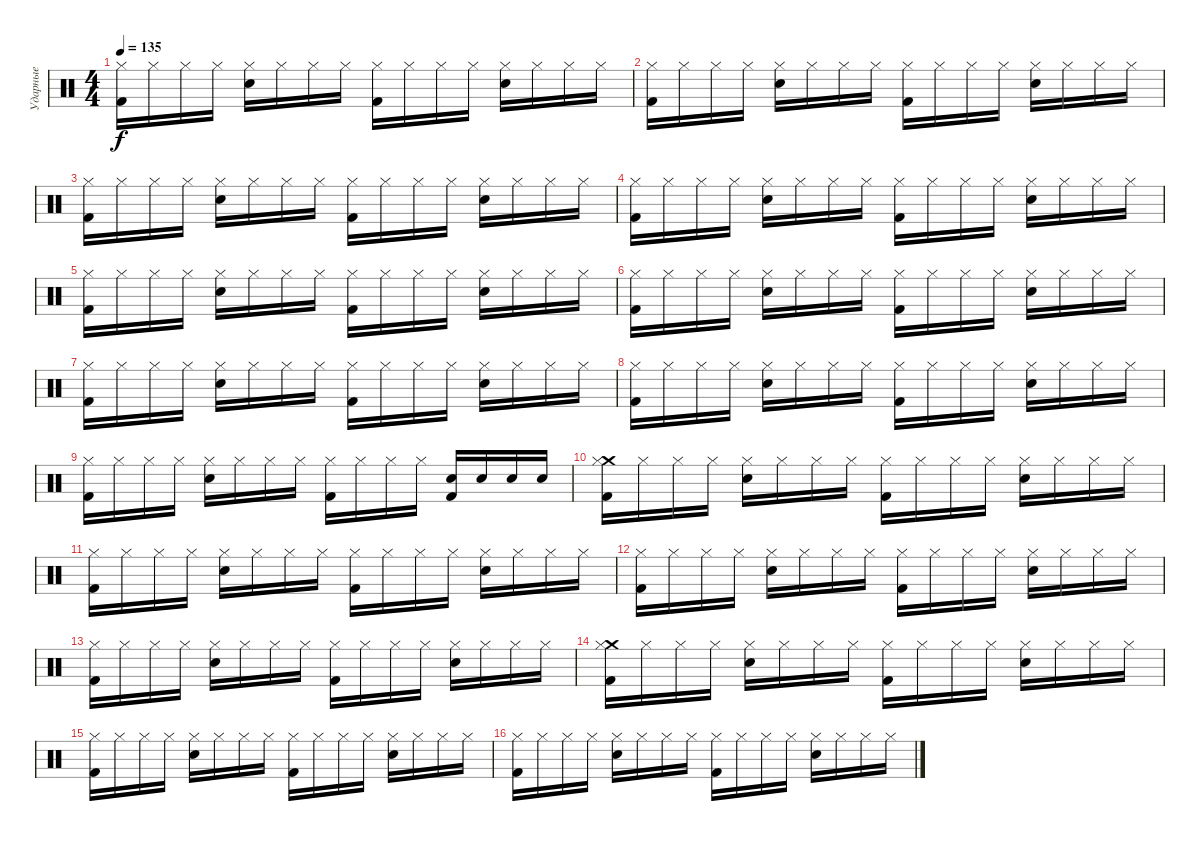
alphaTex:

\track ("Ударные" "Ударные") {instrument percussion}
\staff {score}
\articulation defaults
\ts (4 4)
\tempo 135
\clef neutral
\ks c
("Hi-Hat (closed)" "Kick (hit) 2").16{dy f} "Hi-Hat (closed)".16 "Hi-Hat (closed)".16 "Hi-Hat (closed)".16 ("Hi-Hat (closed)" "Snare (hit) 2").16 "Hi-Hat (closed)".16 "Hi-Hat (closed)".16 "Hi-Hat (closed)".16 ("Hi-Hat (closed)" "Kick (hit) 2").16 "Hi-Hat (closed)".16 "Hi-Hat (closed)".16 "Hi-Hat (closed)".16 ("Hi-Hat (closed)" "Snare (hit) 2").16 "Hi-Hat (closed)".16 "Hi-Hat (closed)".16 "Hi-Hat (closed)".16 |
("Hi-Hat (closed)" "Kick (hit) 2").16 "Hi-Hat (closed)".16 "Hi-Hat (closed)".16 "Hi-Hat (closed)".16 ("Hi-Hat (closed)" "Snare (hit) 2").16 "Hi-Hat (closed)".16 "Hi-Hat (closed)".16 "Hi-Hat (closed)".16 ("Hi-Hat (closed)" "Kick (hit) 2").16 "Hi-Hat (closed)".16 "Hi-Hat (closed)".16 "Hi-Hat (closed)".16 ("Hi-Hat (closed)" "Snare (hit) 2").16 "Hi-Hat (closed)".16 "Hi-Hat (closed)".16 "Hi-Hat (closed)".16 |
("Hi-Hat (closed)" "Kick (hit) 2").16 "Hi-Hat (closed)".16 "Hi-Hat (closed)".16 "Hi-Hat (closed)".16 ("Hi-Hat (closed)" "Snare (hit) 2").16 "Hi-Hat (closed)".16 "Hi-Hat (closed)".16 "Hi-Hat (closed)".16 ("Hi-Hat (closed)" "Kick (hit) 2").16 "Hi-Hat (closed)".16 "Hi-Hat (closed)".16 "Hi-Hat (closed)".16 ("Hi-Hat (closed)" "Snare (hit) 2").16 "Hi-Hat (closed)".16 "Hi-Hat (closed)".16 "Hi-Hat (closed)".16 |
("Hi-Hat (closed)" "Kick (hit) 2").16 "Hi-Hat (closed)".16 "Hi-Hat (closed)".16 "Hi-Hat (closed)".16 ("Hi-Hat (closed)" "Snare (hit) 2").16 "Hi-Hat (closed)".16 "Hi-Hat (closed)".16 "Hi-Hat (closed)".16 ("Hi-Hat (closed)" "Kick (hit) 2").16 "Hi-Hat (closed)".16 "Hi-Hat (closed)".16 "Hi-Hat (closed)".16 ("Hi-Hat (closed)" "Snare (hit) 2").16 "Hi-Hat (closed)".16 "Hi-Hat (closed)".16 "Hi-Hat (closed)".16 |
("Hi-Hat (closed)" "Kick (hit) 2").16 "Hi-Hat (closed)".16 "Hi-Hat (closed)".16 "Hi-Hat (closed)".16 ("Hi-Hat (closed)" "Snare (hit) 2").16 "Hi-Hat (closed)".16 "Hi-Hat (closed)".16 "Hi-Hat (closed)".16 ("Hi-Hat (closed)" "Kick (hit) 2").16 "Hi-Hat (closed)".16 "Hi-Hat (closed)".16 "Hi-Hat (closed)".16 ("Hi-Hat (closed)" "Snare (hit) 2").16 "Hi-Hat (closed)".16 "Hi-Hat (closed)".16 "Hi-Hat (closed)".16 |
("Hi-Hat (closed)" "Kick (hit) 2").16 "Hi-Hat (closed)".16 "Hi-Hat (closed)".16 "Hi-Hat (closed)".16 ("Hi-Hat (closed)" "Snare (hit) 2").16 "Hi-Hat (closed)".16 "Hi-Hat (closed)".16 "Hi-Hat (closed)".16 ("Hi-Hat (closed)" "Kick (hit) 2").16 "Hi-Hat (closed)".16 "Hi-Hat (closed)".16 "Hi-Hat (closed)".16 ("Hi-Hat (closed)" "Snare (hit) 2").16 "Hi-Hat (closed)".16 "Hi-Hat (closed)".16 "Hi-Hat (closed)".16 |
("Hi-Hat (closed)" "Kick (hit) 2").16 "Hi-Hat (closed)".16 "Hi-Hat (closed)".16 "Hi-Hat (closed)".16 ("Hi-Hat (closed)" "Snare (hit) 2").16 "Hi-Hat (closed)".16 "Hi-Hat (closed)".16 "Hi-Hat (closed)".16 ("Hi-Hat (closed)" "Kick (hit) 2").16 "Hi-Hat (closed)".16 "Hi-Hat (closed)".16 "Hi-Hat (closed)".16 ("Hi-Hat (closed)" "Snare (hit) 2").16 "Hi-Hat (closed)".16 "Hi-Hat (closed)".16 "Hi-Hat (closed)".16 |
("Hi-Hat (closed)" "Kick (hit) 2").16 "Hi-Hat (closed)".16 "Hi-Hat (closed)".16 "Hi-Hat (closed)".16 ("Hi-Hat (closed)" "Snare (hit) 2").16 "Hi-Hat (closed)".16 "Hi-Hat (closed)".16 "Hi-Hat (closed)".16 ("Hi-Hat (closed)" "Kick (hit) 2").16 "Hi-Hat (closed)".16 "Hi-Hat (closed)".16 "Hi-Hat (closed)".16 ("Hi-Hat (closed)" "Snare (hit) 2").16 "Hi-Hat (closed)".16 "Hi-Hat (closed)".16 "Hi-Hat (closed)".16 |
("Hi-Hat (closed)" "Kick (hit) 2").16 "Hi-Hat (closed)".16 "Hi-Hat (closed)".16 "Hi-Hat (closed)".16 ("Hi-Hat (closed)" "Snare (hit) 2").16 "Hi-Hat (closed)".16 "Hi-Hat (closed)".16 "Hi-Hat (closed)".16 ("Hi-Hat (closed)" "Kick (hit) 2").16 "Hi-Hat (closed)".16 "Hi-Hat (closed)".16 "Hi-Hat (closed)".16 ("Snare (hit) 2" "Kick (hit) 2").16 "Snare (hit) 2".16 "Snare (hit) 2".16 "Snare (hit) 2".16 |
("Crash medium (hit)" "Hi-Hat (closed)" "Kick (hit) 2").16 "Hi-Hat (closed)".16 "Hi-Hat (closed)".16 "Hi-Hat (closed)".16 ("Hi-Hat (closed)" "Snare (hit) 2").16 "Hi-Hat (closed)".16 "Hi-Hat (closed)".16 "Hi-Hat (closed)".16 ("Hi-Hat (closed)" "Kick (hit) 2").16 "Hi-Hat (closed)".16 "Hi-Hat (closed)".16 "Hi-Hat (closed)".16 ("Hi-Hat (closed)" "Snare (hit) 2").16 "Hi-Hat (closed)".16 "Hi-Hat (closed)".16 "Hi-Hat (closed)".16 |
("Hi-Hat (closed)" "Kick (hit) 2").16 "Hi-Hat (closed)".16 "Hi-Hat (closed)".16 "Hi-Hat (closed)".16 ("Hi-Hat (closed)" "Snare (hit) 2").16 "Hi-Hat (closed)".16 "Hi-Hat (closed)".16 "Hi-Hat (closed)".16 ("Hi-Hat (closed)" "Kick (hit) 2").16 "Hi-Hat (closed)".16 "Hi-Hat (closed)".16 "Hi-Hat (closed)".16 ("Hi-Hat (closed)" "Snare (hit) 2").16 "Hi-Hat (closed)".16 "Hi-Hat (closed)".16 "Hi-Hat (closed)".16 |
("Hi-Hat (closed)" "Kick (hit) 2").16 "Hi-Hat (closed)".16 "Hi-Hat (closed)".16 "Hi-Hat (closed)".16 ("Hi-Hat (closed)" "Snare (hit) 2").16 "Hi-Hat (closed)".16 "Hi-Hat (closed)".16 "Hi-Hat (closed)".16 ("Hi-Hat (closed)" "Kick (hit) 2").16 "Hi-Hat (closed)".16 "Hi-Hat (closed)".16 "Hi-Hat (closed)".16 ("Hi-Hat (closed)" "Snare (hit) 2").16 "Hi-Hat (closed)".16 "Hi-Hat (closed)".16 "Hi-Hat (closed)".16 |
("Hi-Hat (closed)" "Kick (hit) 2").16 "Hi-Hat (closed)".16 "Hi-Hat (closed)".16 "Hi-Hat (closed)".16 ("Hi-Hat (closed)" "Snare (hit) 2").16 "Hi-Hat (closed)".16 "Hi-Hat (closed)".16 "Hi-Hat (closed)".16 ("Hi-Hat (closed)" "Kick (hit) 2").16 "Hi-Hat (closed)".16 "Hi-Hat (closed)".16 "Hi-Hat (closed)".16 ("Hi-Hat (closed)" "Snare (hit) 2").16 "Hi-Hat (closed)".16 "Hi-Hat (closed)".16 "Hi-Hat (closed)".16 |
("Crash medium (hit)" "Hi-Hat (closed)" "Kick (hit) 2").16 "Hi-Hat (closed)".16 "Hi-Hat (closed)".16 "Hi-Hat (closed)".16 ("Hi-Hat (closed)" "Snare (hit) 2").16 "Hi-Hat (closed)".16 "Hi-Hat (closed)".16 "Hi-Hat (closed)".16 ("Hi-Hat (closed)" "Kick (hit) 2").16 "Hi-Hat (closed)".16 "Hi-Hat (closed)".16 "Hi-Hat (closed)".16 ("Hi-Hat (closed)" "Snare (hit) 2").16 "Hi-Hat (closed)".16 "Hi-Hat (closed)".16 "Hi-Hat (closed)".16 |
("Hi-Hat (closed)" "Kick (hit) 2").16 "Hi-Hat (closed)".16 "Hi-Hat (closed)".16 "Hi-Hat (closed)".16 ("Hi-Hat (closed)" "Snare (hit) 2").16 "Hi-Hat (closed)".16 "Hi-Hat (closed)".16 "Hi-Hat (closed)".16 ("Hi-Hat (closed)" "Kick (hit) 2").16 "Hi-Hat (closed)".16 "Hi-Hat (closed)".16 "Hi-Hat (closed)".16 ("Hi-Hat (closed)" "Snare (hit) 2").16 "Hi-Hat (closed)".16 "Hi-Hat (closed)".16 "Hi-Hat (closed)".16 |
("Hi-Hat (closed)" "Kick (hit) 2").16 "Hi-Hat (closed)".16 "Hi-Hat (closed)".16 "Hi-Hat (closed)".16 ("Hi-Hat (closed)" "Snare (hit) 2").16 "Hi-Hat (closed)".16 "Hi-Hat (closed)".16 "Hi-Hat (closed)".16 ("Hi-Hat (closed)" "Kick (hit) 2").16 "Hi-Hat (closed)".16 "Hi-Hat (closed)".16 "Hi-Hat (closed)".16 ("Hi-Hat (closed)" "Snare (hit) 2").16 "Hi-Hat (closed)".16 "Hi-Hat (closed)".16 "Hi-Hat (closed)".16
